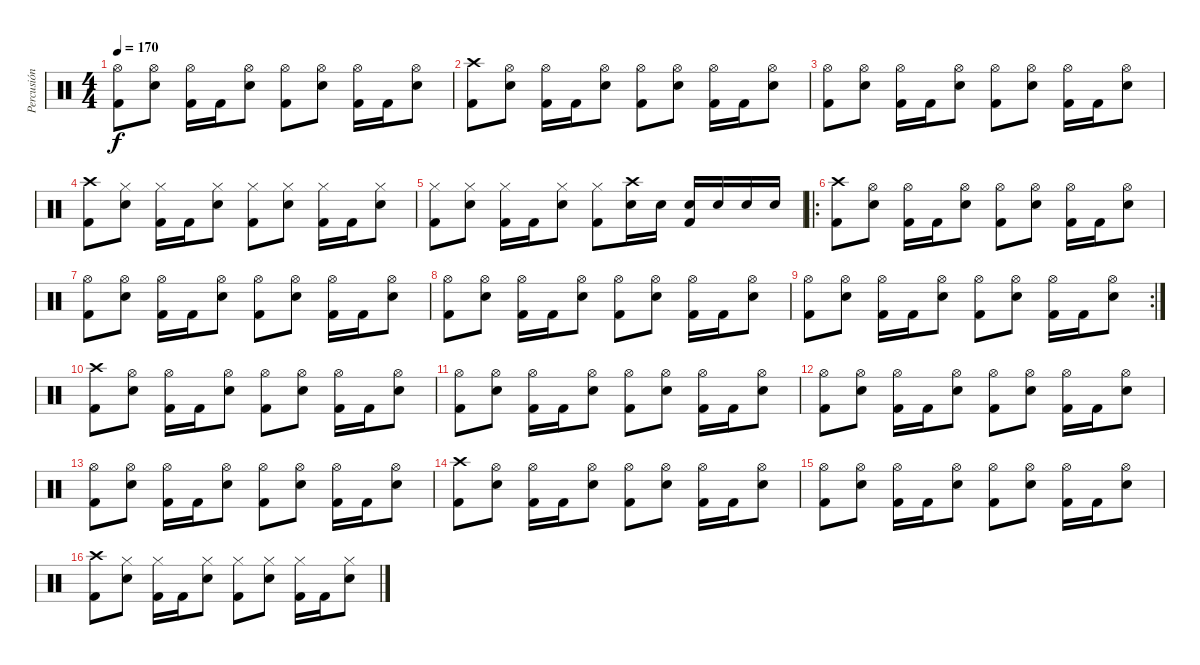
\track ("Percusión" "Percusión") {instrument percussion}
\staff {score}
\articulation defaults
\ts (4 4)
\tempo 170
\clef neutral
\ks c
("Kick (hit) 2" "Hi-Hat (open)").8{dy f} ("Snare (hit) 2" "Hi-Hat (open)").8 ("Kick (hit) 2" "Hi-Hat (open)").16 "Kick (hit) 2".16 ("Snare (hit) 2" "Hi-Hat (open)").8 ("Kick (hit) 2" "Hi-Hat (open)").8 ("Snare (hit) 2" "Hi-Hat (open)").8 ("Kick (hit) 2" "Hi-Hat (open)").16 "Kick (hit) 2".16 ("Snare (hit) 2" "Hi-Hat (open)").8 |
("Kick (hit) 2" "Crash high (hit)").8 ("Snare (hit) 2" "Hi-Hat (open)").8 ("Kick (hit) 2" "Hi-Hat (open)").16 "Kick (hit) 2".16 ("Snare (hit) 2" "Hi-Hat (open)").8 ("Kick (hit) 2" "Hi-Hat (open)").8 ("Snare (hit) 2" "Hi-Hat (open)").8 ("Kick (hit) 2" "Hi-Hat (open)").16 "Kick (hit) 2".16 ("Snare (hit) 2" "Hi-Hat (open)").8 |
("Kick (hit) 2" "Hi-Hat (open)").8 ("Snare (hit) 2" "Hi-Hat (open)").8 ("Kick (hit) 2" "Hi-Hat (open)").16 "Kick (hit) 2".16 ("Snare (hit) 2" "Hi-Hat (open)").8 ("Kick (hit) 2" "Hi-Hat (open)").8 ("Snare (hit) 2" "Hi-Hat (open)").8 ("Kick (hit) 2" "Hi-Hat (open)").16 "Kick (hit) 2".16 ("Snare (hit) 2" "Hi-Hat (open)").8 |
("Kick (hit) 2" "Crash high (hit)").8 ("Snare (hit) 2" "Hi-Hat (closed)").8 ("Kick (hit) 2" "Hi-Hat (closed)").16 "Kick (hit) 2".16 ("Snare (hit) 2" "Hi-Hat (closed)").8 ("Kick (hit) 2" "Hi-Hat (closed)").8 ("Snare (hit) 2" "Hi-Hat (closed)").8 ("Kick (hit) 2" "Hi-Hat (closed)").16 "Kick (hit) 2".16 ("Snare (hit) 2" "Hi-Hat (closed)").8 |
("Kick (hit) 2" "Hi-Hat (closed)").8 ("Snare (hit) 2" "Hi-Hat (closed)").8 ("Kick (hit) 2" "Hi-Hat (closed)").16 "Kick (hit) 2".16 ("Snare (hit) 2" "Hi-Hat (closed)").8 ("Kick (hit) 2" "Hi-Hat (closed)").8 ("Snare (hit) 2" "Crash high (hit)").16 "Snare (hit) 2".16 ("Kick (hit) 2" "Snare (hit) 2").16 "Snare (hit) 2".16 "Snare (hit) 2".16 "Snare (hit) 2".16 |
\ro
("Kick (hit) 2" "Crash high (hit)").8 ("Snare (hit) 2" "Hi-Hat (open)").8 ("Kick (hit) 2" "Hi-Hat (open)").16 "Kick (hit) 2".16 ("Snare (hit) 2" "Hi-Hat (open)").8 ("Kick (hit) 2" "Hi-Hat (open)").8 ("Snare (hit) 2" "Hi-Hat (open)").8 ("Kick (hit) 2" "Hi-Hat (open)").16 "Kick (hit) 2".16 ("Snare (hit) 2" "Hi-Hat (open)").8 |
("Kick (hit) 2" "Hi-Hat (open)").8 ("Snare (hit) 2" "Hi-Hat (open)").8 ("Kick (hit) 2" "Hi-Hat (open)").16 "Kick (hit) 2".16 ("Snare (hit) 2" "Hi-Hat (open)").8 ("Kick (hit) 2" "Hi-Hat (open)").8 ("Snare (hit) 2" "Hi-Hat (open)").8 ("Kick (hit) 2" "Hi-Hat (open)").16 "Kick (hit) 2".16 ("Snare (hit) 2" "Hi-Hat (open)").8 |
("Kick (hit) 2" "Hi-Hat (open)").8 ("Snare (hit) 2" "Hi-Hat (open)").8 ("Kick (hit) 2" "Hi-Hat (open)").16 "Kick (hit) 2".16 ("Snare (hit) 2" "Hi-Hat (open)").8 ("Kick (hit) 2" "Hi-Hat (open)").8 ("Snare (hit) 2" "Hi-Hat (open)").8 ("Kick (hit) 2" "Hi-Hat (open)").16 "Kick (hit) 2".16 ("Snare (hit) 2" "Hi-Hat (open)").8 |
\rc 2
("Kick (hit) 2" "Hi-Hat (open)").8 ("Snare (hit) 2" "Hi-Hat (open)").8 ("Kick (hit) 2" "Hi-Hat (open)").16 "Kick (hit) 2".16 ("Snare (hit) 2" "Hi-Hat (open)").8 ("Kick (hit) 2" "Hi-Hat (open)").8 ("Snare (hit) 2" "Hi-Hat (open)").8 ("Kick (hit) 2" "Hi-Hat (open)").16 "Kick (hit) 2".16 ("Snare (hit) 2" "Hi-Hat (open)").8 |
("Kick (hit) 2" "Crash high (hit)").8 ("Snare (hit) 2" "Hi-Hat (open)").8 ("Kick (hit) 2" "Hi-Hat (open)").16 "Kick (hit) 2".16 ("Snare (hit) 2" "Hi-Hat (open)").8 ("Kick (hit) 2" "Hi-Hat (open)").8 ("Snare (hit) 2" "Hi-Hat (open)").8 ("Kick (hit) 2" "Hi-Hat (open)").16 "Kick (hit) 2".16 ("Snare (hit) 2" "Hi-Hat (open)").8 |
("Kick (hit) 2" "Hi-Hat (open)").8 ("Snare (hit) 2" "Hi-Hat (open)").8 ("Kick (hit) 2" "Hi-Hat (open)").16 "Kick (hit) 2".16 ("Snare (hit) 2" "Hi-Hat (open)").8 ("Kick (hit) 2" "Hi-Hat (open)").8 ("Snare (hit) 2" "Hi-Hat (open)").8 ("Kick (hit) 2" "Hi-Hat (open)").16 "Kick (hit) 2".16 ("Snare (hit) 2" "Hi-Hat (open)").8 |
("Kick (hit) 2" "Hi-Hat (open)").8 ("Snare (hit) 2" "Hi-Hat (open)").8 ("Kick (hit) 2" "Hi-Hat (open)").16 "Kick (hit) 2".16 ("Snare (hit) 2" "Hi-Hat (open)").8 ("Kick (hit) 2" "Hi-Hat (open)").8 ("Snare (hit) 2" "Hi-Hat (open)").8 ("Kick (hit) 2" "Hi-Hat (open)").16 "Kick (hit) 2".16 ("Snare (hit) 2" "Hi-Hat (open)").8 |
("Kick (hit) 2" "Hi-Hat (open)").8 ("Snare (hit) 2" "Hi-Hat (open)").8 ("Kick (hit) 2" "Hi-Hat (open)").16 "Kick (hit) 2".16 ("Snare (hit) 2" "Hi-Hat (open)").8 ("Kick (hit) 2" "Hi-Hat (open)").8 ("Snare (hit) 2" "Hi-Hat (open)").8 ("Kick (hit) 2" "Hi-Hat (open)").16 "Kick (hit) 2".16 ("Snare (hit) 2" "Hi-Hat (open)").8 |
("Kick (hit) 2" "Crash high (hit)").8 ("Snare (hit) 2" "Hi-Hat (open)").8 ("Kick (hit) 2" "Hi-Hat (open)").16 "Kick (hit) 2".16 ("Snare (hit) 2" "Hi-Hat (open)").8 ("Kick (hit) 2" "Hi-Hat (open)").8 ("Snare (hit) 2" "Hi-Hat (open)").8 ("Kick (hit) 2" "Hi-Hat (open)").16 "Kick (hit) 2".16 ("Snare (hit) 2" "Hi-Hat (open)").8 |
("Kick (hit) 2" "Hi-Hat (open)").8 ("Snare (hit) 2" "Hi-Hat (open)").8 ("Kick (hit) 2" "Hi-Hat (open)").16 "Kick (hit) 2".16 ("Snare (hit) 2" "Hi-Hat (open)").8 ("Kick (hit) 2" "Hi-Hat (open)").8 ("Snare (hit) 2" "Hi-Hat (open)").8 ("Kick (hit) 2" "Hi-Hat (open)").16 "Kick (hit) 2".16 ("Snare (hit) 2" "Hi-Hat (open)").8 |
("Kick (hit) 2" "Crash high (hit)").8 ("Snare (hit) 2" "Hi-Hat (closed)").8 ("Kick (hit) 2" "Hi-Hat (closed)").16 "Kick (hit) 2".16 ("Snare (hit) 2" "Hi-Hat (closed)").8 ("Kick (hit) 2" "Hi-Hat (closed)").8 ("Snare (hit) 2" "Hi-Hat (closed)").8 ("Kick (hit) 2" "Hi-Hat (closed)").16 "Kick (hit) 2".16 ("Snare (hit) 2" "Hi-Hat (closed)").8
